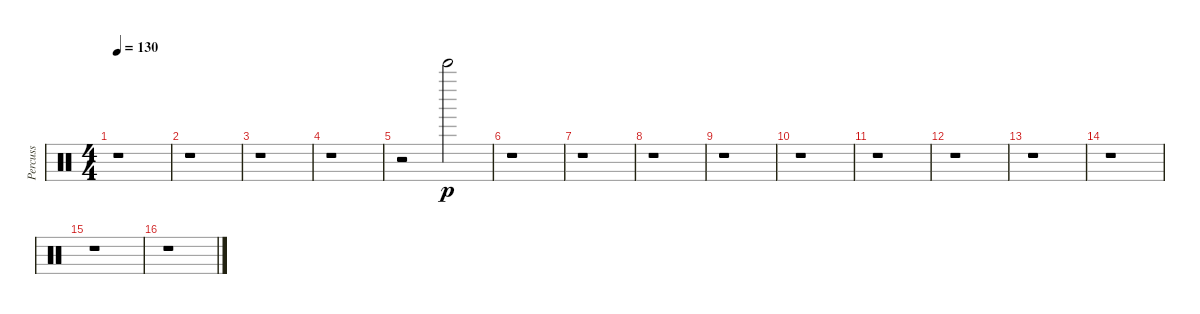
\track ("Percuss" "Percuss") {instrument percussion}
\staff {score}
\articulation defaults
\ts (4 4)
\tempo 130
\clef neutral
\ks c
r.1{dy p} |
r.1 |
r.1 |
r.1 |
r.2 "Bell Tree (hit)".2 |
r.1 |
r.1 |
r.1 |
r.1 |
r.1 |
r.1 |
r.1 |
r.1 |
r.1 |
r.1 |
r.1
